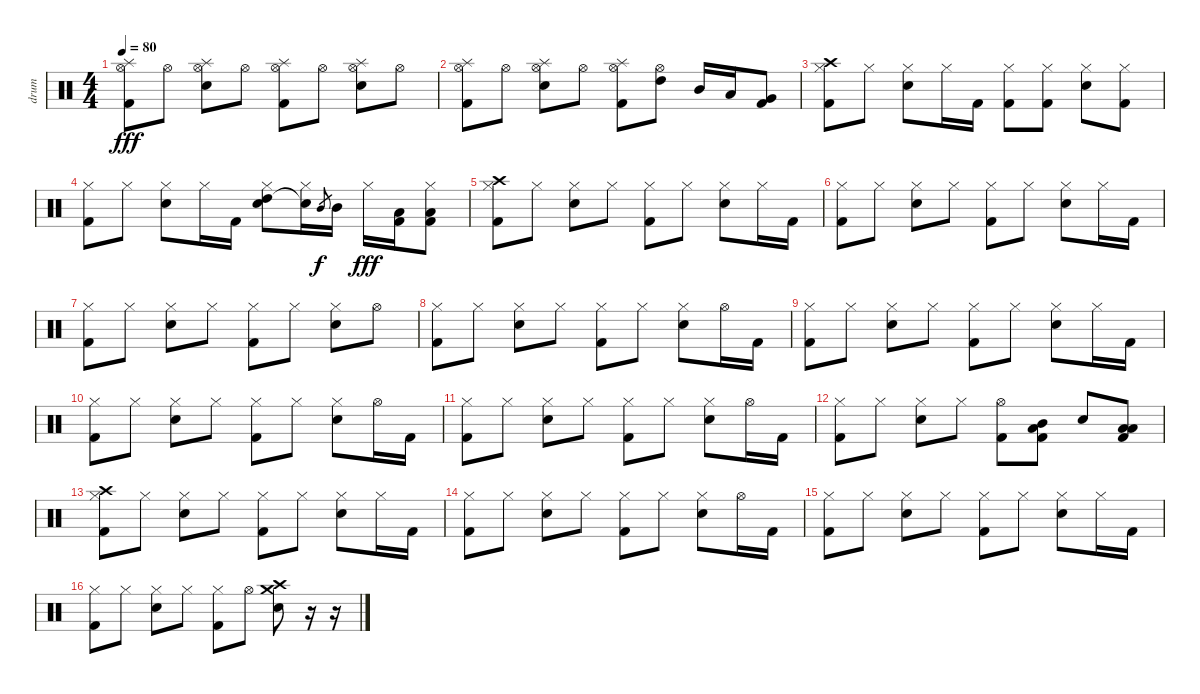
\track ("drum" "drum") {instrument percussion}
\staff {score}
\articulation defaults
\ts (4 4)
\tempo 80
\clef neutral
\ks c
("Splash (hit)" "Hi-Hat (open)" "Kick (hit) 2").8{dy fff} "Hi-Hat (open)".8 ("Splash (hit)" "Hi-Hat (open)" "Electric Snare (hit)").8 "Hi-Hat (open)".8 ("Splash (hit)" "Hi-Hat (open)" "Kick (hit) 2").8 "Hi-Hat (open)".8 ("Splash (hit)" "Hi-Hat (open)" "Electric Snare (hit)").8 "Hi-Hat (open)".8 |
("Splash (hit)" "Hi-Hat (open)" "Kick (hit) 2").8 "Hi-Hat (open)".8 ("Splash (hit)" "Hi-Hat (open)" "Electric Snare (hit)").8 "Hi-Hat (open)".8 ("Splash (hit)" "Hi-Hat (open)" "Kick (hit) 2").8 ("Hi-Hat (open)" "High Tom (hit)").8 "Mid Tom (hit)".16 "Low Tom (hit)".16 ("Very Low Tom (hit)" "Kick (hit) 2").8 |
("Crash high (hit)" "Hi-Hat (closed)" "Kick (hit) 2").8 "Hi-Hat (closed)".8 ("Hi-Hat (closed)" "Electric Snare (hit)").8 "Hi-Hat (closed)".16 "Kick (hit) 2".16 ("Hi-Hat (closed)" "Kick (hit) 2").8 ("Hi-Hat (closed)" "Kick (hit) 2").8 ("Hi-Hat (closed)" "Electric Snare (hit)").8 ("Hi-Hat (closed)" "Kick (hit) 2").8 |
("Hi-Hat (closed)" "Kick (hit) 2").8 "Hi-Hat (closed)".8 ("Hi-Hat (closed)" "Electric Snare (hit)").8 "Hi-Hat (closed)".16 "Kick (hit) 2".16 ("Hi-Hat (closed)" "High Tom (hit)" "Electric Snare (hit)").8 ("Hi-Hat (closed)" "Snare (hit)"{t}).16 "Mid Tom (hit)".8{gr dy f} "Mid Tom (hit)".16 "Hi-Hat (closed)".16{dy fff} ("Low Floor Tom (hit)" "Kick (hit) 2").16 ("Hi-Hat (closed)" "Low Floor Tom (hit)" "Kick (hit) 2").8 |
("Crash high (hit)" "Hi-Hat (closed)" "Kick (hit) 2").8 "Hi-Hat (closed)".8 ("Hi-Hat (closed)" "Electric Snare (hit)").8 "Hi-Hat (closed)".8 ("Hi-Hat (closed)" "Kick (hit) 2").8 "Hi-Hat (closed)".8 ("Hi-Hat (closed)" "Electric Snare (hit)").8 "Hi-Hat (closed)".16 "Kick (hit) 2".16 |
("Hi-Hat (closed)" "Kick (hit) 2").8 "Hi-Hat (closed)".8 ("Hi-Hat (closed)" "Electric Snare (hit)").8 "Hi-Hat (closed)".8 ("Hi-Hat (closed)" "Kick (hit) 2").8 "Hi-Hat (closed)".8 ("Hi-Hat (closed)" "Electric Snare (hit)").8 "Hi-Hat (closed)".16 "Kick (hit) 2".16 |
("Hi-Hat (closed)" "Kick (hit) 2").8 "Hi-Hat (closed)".8 ("Hi-Hat (closed)" "Electric Snare (hit)").8 "Hi-Hat (closed)".8 ("Hi-Hat (closed)" "Kick (hit) 2").8 "Hi-Hat (closed)".8 ("Hi-Hat (closed)" "Electric Snare (hit)").8 "Hi-Hat (open)".8 |
("Hi-Hat (closed)" "Kick (hit) 2").8 "Hi-Hat (closed)".8 ("Hi-Hat (closed)" "Electric Snare (hit)").8 "Hi-Hat (closed)".8 ("Hi-Hat (closed)" "Kick (hit) 2").8 "Hi-Hat (closed)".8 ("Hi-Hat (closed)" "Electric Snare (hit)").8 "Hi-Hat (open)".16 "Kick (hit) 2".16 |
("Hi-Hat (closed)" "Kick (hit) 2").8 "Hi-Hat (closed)".8 ("Hi-Hat (closed)" "Electric Snare (hit)").8 "Hi-Hat (closed)".8 ("Hi-Hat (closed)" "Kick (hit) 2").8 "Hi-Hat (closed)".8 ("Hi-Hat (closed)" "Electric Snare (hit)").8 "Hi-Hat (closed)".16 "Kick (hit) 2".16 |
("Hi-Hat (closed)" "Kick (hit) 2").8 "Hi-Hat (closed)".8 ("Hi-Hat (closed)" "Electric Snare (hit)").8 "Hi-Hat (closed)".8 ("Hi-Hat (closed)" "Kick (hit) 2").8 "Hi-Hat (closed)".8 ("Hi-Hat (closed)" "Electric Snare (hit)").8 "Hi-Hat (open)".16 "Kick (hit) 2".16 |
("Hi-Hat (closed)" "Kick (hit) 2").8 "Hi-Hat (closed)".8 ("Hi-Hat (closed)" "Electric Snare (hit)").8 "Hi-Hat (closed)".8 ("Hi-Hat (closed)" "Kick (hit) 2").8 "Hi-Hat (closed)".8 ("Hi-Hat (closed)" "Electric Snare (hit)").8 "Hi-Hat (open)".16 "Kick (hit) 2".16 |
("Hi-Hat (closed)" "Kick (hit) 2").8 "Hi-Hat (closed)".8 ("Hi-Hat (closed)" "Electric Snare (hit)").8 "Hi-Hat (closed)".8 ("Hi-Hat (open)" "Kick (hit) 2").8 ("Mid Tom (hit)" "Low Floor Tom (hit)" "Kick (hit) 2").8 "Electric Snare (hit)".8 ("Low Tom (hit)" "Low Floor Tom (hit)" "Kick (hit) 2").8 |
("Crash high (hit)" "Hi-Hat (closed)" "Kick (hit) 2").8 "Hi-Hat (closed)".8 ("Hi-Hat (closed)" "Electric Snare (hit)").8 "Hi-Hat (closed)".8 ("Hi-Hat (closed)" "Kick (hit) 2").8 "Hi-Hat (closed)".8 ("Hi-Hat (closed)" "Electric Snare (hit)").8 "Hi-Hat (closed)".16 "Kick (hit) 2".16 |
("Hi-Hat (closed)" "Kick (hit) 2").8 "Hi-Hat (closed)".8 ("Hi-Hat (closed)" "Electric Snare (hit)").8 "Hi-Hat (closed)".8 ("Hi-Hat (closed)" "Kick (hit) 2").8 "Hi-Hat (closed)".8 ("Hi-Hat (closed)" "Electric Snare (hit)").8 "Hi-Hat (open)".16 "Kick (hit) 2".16 |
("Hi-Hat (closed)" "Kick (hit) 2").8 "Hi-Hat (closed)".8 ("Hi-Hat (closed)" "Electric Snare (hit)").8 "Hi-Hat (closed)".8 ("Hi-Hat (closed)" "Kick (hit) 2").8 "Hi-Hat (closed)".8 ("Hi-Hat (closed)" "Electric Snare (hit)").8 "Hi-Hat (closed)".16 "Kick (hit) 2".16 |
("Hi-Hat (closed)" "Kick (hit) 2").8 "Hi-Hat (closed)".8 ("Hi-Hat (closed)" "Electric Snare (hit)").8 "Hi-Hat (closed)".8 ("Hi-Hat (closed)" "Kick (hit) 2").8 "Hi-Hat (open)".8 ("Crash high (hit)" "Crash medium (hit)" "Electric Snare (hit)").8 r.16 r.16
